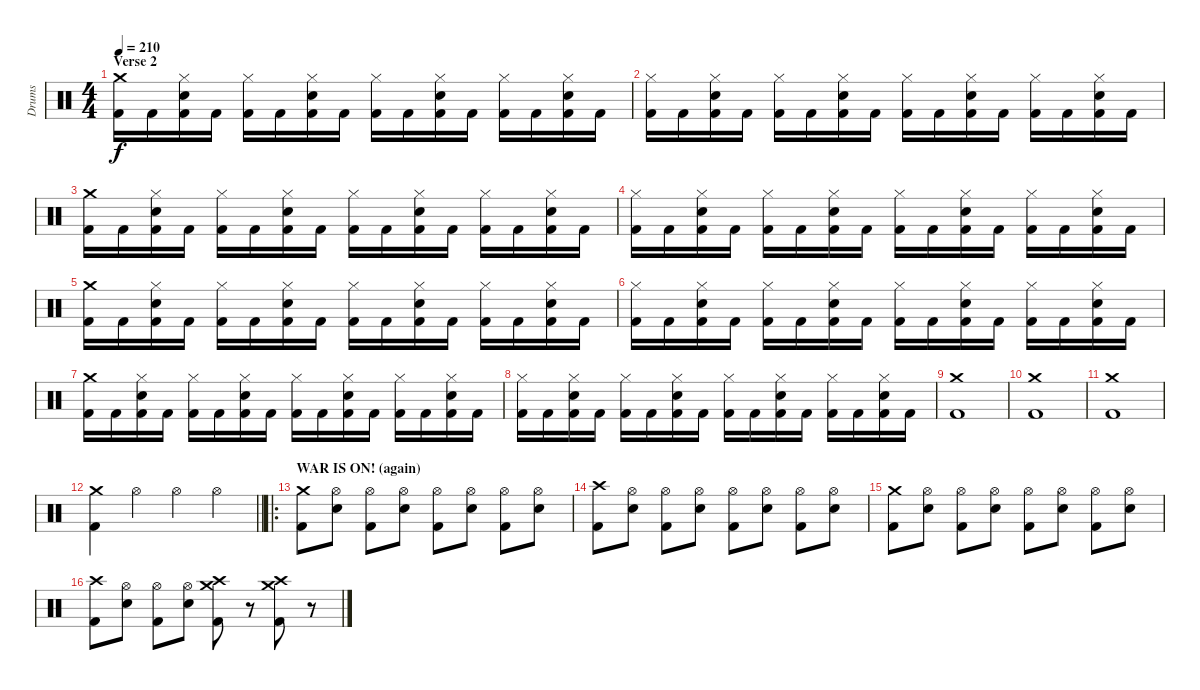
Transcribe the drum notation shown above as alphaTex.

\track ("Drums" "Drums") {instrument percussion}
\staff {score}
\articulation defaults
\ts (4 4)
\section ("" "Verse 2")
\tempo 210
\clef neutral
\ks c
("Crash medium (hit)" "Kick (hit) 2").16{dy f} "Kick (hit) 2".16 ("Hi-Hat (closed)" "Electric Snare (hit)" "Kick (hit) 2").16 "Kick (hit) 2".16 ("Hi-Hat (closed)" "Kick (hit) 2").16 "Kick (hit) 2".16 ("Hi-Hat (closed)" "Electric Snare (hit)" "Kick (hit) 2").16 "Kick (hit) 2".16 ("Hi-Hat (closed)" "Kick (hit) 2").16 "Kick (hit) 2".16 ("Hi-Hat (closed)" "Electric Snare (hit)" "Kick (hit) 2").16 "Kick (hit) 2".16 ("Hi-Hat (closed)" "Kick (hit) 2").16 "Kick (hit) 2".16 ("Hi-Hat (closed)" "Electric Snare (hit)" "Kick (hit) 2").16 "Kick (hit) 2".16 |
("Hi-Hat (closed)" "Kick (hit) 2").16 "Kick (hit) 2".16 ("Hi-Hat (closed)" "Electric Snare (hit)" "Kick (hit) 2").16 "Kick (hit) 2".16 ("Hi-Hat (closed)" "Kick (hit) 2").16 "Kick (hit) 2".16 ("Hi-Hat (closed)" "Electric Snare (hit)" "Kick (hit) 2").16 "Kick (hit) 2".16 ("Hi-Hat (closed)" "Kick (hit) 2").16 "Kick (hit) 2".16 ("Hi-Hat (closed)" "Electric Snare (hit)" "Kick (hit) 2").16 "Kick (hit) 2".16 ("Hi-Hat (closed)" "Kick (hit) 2").16 "Kick (hit) 2".16 ("Hi-Hat (closed)" "Electric Snare (hit)" "Kick (hit) 2").16 "Kick (hit) 2".16 |
("Crash medium (hit)" "Kick (hit) 2").16 "Kick (hit) 2".16 ("Hi-Hat (closed)" "Electric Snare (hit)" "Kick (hit) 2").16 "Kick (hit) 2".16 ("Hi-Hat (closed)" "Kick (hit) 2").16 "Kick (hit) 2".16 ("Hi-Hat (closed)" "Electric Snare (hit)" "Kick (hit) 2").16 "Kick (hit) 2".16 ("Hi-Hat (closed)" "Kick (hit) 2").16 "Kick (hit) 2".16 ("Hi-Hat (closed)" "Electric Snare (hit)" "Kick (hit) 2").16 "Kick (hit) 2".16 ("Hi-Hat (closed)" "Kick (hit) 2").16 "Kick (hit) 2".16 ("Hi-Hat (closed)" "Electric Snare (hit)" "Kick (hit) 2").16 "Kick (hit) 2".16 |
("Hi-Hat (closed)" "Kick (hit) 2").16 "Kick (hit) 2".16 ("Hi-Hat (closed)" "Electric Snare (hit)" "Kick (hit) 2").16 "Kick (hit) 2".16 ("Hi-Hat (closed)" "Kick (hit) 2").16 "Kick (hit) 2".16 ("Hi-Hat (closed)" "Electric Snare (hit)" "Kick (hit) 2").16 "Kick (hit) 2".16 ("Hi-Hat (closed)" "Kick (hit) 2").16 "Kick (hit) 2".16 ("Hi-Hat (closed)" "Electric Snare (hit)" "Kick (hit) 2").16 "Kick (hit) 2".16 ("Hi-Hat (closed)" "Kick (hit) 2").16 "Kick (hit) 2".16 ("Hi-Hat (closed)" "Electric Snare (hit)" "Kick (hit) 2").16 "Kick (hit) 2".16 |
("Crash medium (hit)" "Kick (hit) 2").16 "Kick (hit) 2".16 ("Hi-Hat (closed)" "Electric Snare (hit)" "Kick (hit) 2").16 "Kick (hit) 2".16 ("Hi-Hat (closed)" "Kick (hit) 2").16 "Kick (hit) 2".16 ("Hi-Hat (closed)" "Electric Snare (hit)" "Kick (hit) 2").16 "Kick (hit) 2".16 ("Hi-Hat (closed)" "Kick (hit) 2").16 "Kick (hit) 2".16 ("Hi-Hat (closed)" "Electric Snare (hit)" "Kick (hit) 2").16 "Kick (hit) 2".16 ("Hi-Hat (closed)" "Kick (hit) 2").16 "Kick (hit) 2".16 ("Hi-Hat (closed)" "Electric Snare (hit)" "Kick (hit) 2").16 "Kick (hit) 2".16 |
("Hi-Hat (closed)" "Kick (hit) 2").16 "Kick (hit) 2".16 ("Hi-Hat (closed)" "Electric Snare (hit)" "Kick (hit) 2").16 "Kick (hit) 2".16 ("Hi-Hat (closed)" "Kick (hit) 2").16 "Kick (hit) 2".16 ("Hi-Hat (closed)" "Electric Snare (hit)" "Kick (hit) 2").16 "Kick (hit) 2".16 ("Hi-Hat (closed)" "Kick (hit) 2").16 "Kick (hit) 2".16 ("Hi-Hat (closed)" "Electric Snare (hit)" "Kick (hit) 2").16 "Kick (hit) 2".16 ("Hi-Hat (closed)" "Kick (hit) 2").16 "Kick (hit) 2".16 ("Hi-Hat (closed)" "Electric Snare (hit)" "Kick (hit) 2").16 "Kick (hit) 2".16 |
("Crash medium (hit)" "Kick (hit) 2").16 "Kick (hit) 2".16 ("Hi-Hat (closed)" "Electric Snare (hit)" "Kick (hit) 2").16 "Kick (hit) 2".16 ("Hi-Hat (closed)" "Kick (hit) 2").16 "Kick (hit) 2".16 ("Hi-Hat (closed)" "Electric Snare (hit)" "Kick (hit) 2").16 "Kick (hit) 2".16 ("Hi-Hat (closed)" "Kick (hit) 2").16 "Kick (hit) 2".16 ("Hi-Hat (closed)" "Electric Snare (hit)" "Kick (hit) 2").16 "Kick (hit) 2".16 ("Hi-Hat (closed)" "Kick (hit) 2").16 "Kick (hit) 2".16 ("Hi-Hat (closed)" "Electric Snare (hit)" "Kick (hit) 2").16 "Kick (hit) 2".16 |
("Hi-Hat (closed)" "Kick (hit) 2").16 "Kick (hit) 2".16 ("Hi-Hat (closed)" "Electric Snare (hit)" "Kick (hit) 2").16 "Kick (hit) 2".16 ("Hi-Hat (closed)" "Kick (hit) 2").16 "Kick (hit) 2".16 ("Hi-Hat (closed)" "Electric Snare (hit)" "Kick (hit) 2").16 "Kick (hit) 2".16 ("Hi-Hat (closed)" "Kick (hit) 2").16 "Kick (hit) 2".16 ("Hi-Hat (closed)" "Electric Snare (hit)" "Kick (hit) 2").16 "Kick (hit) 2".16 ("Hi-Hat (closed)" "Kick (hit) 2").16 "Kick (hit) 2".16 ("Hi-Hat (closed)" "Electric Snare (hit)" "Kick (hit) 2").16 "Kick (hit) 2".16 |
("Crash medium (hit)" "Kick (hit) 2").1 |
("Crash medium (hit)" "Kick (hit) 2").1 |
("Crash medium (hit)" "Kick (hit) 2").1 |
\barLineRight lightlight
("Crash medium (hit)" "Kick (hit) 2").4 "Hi-Hat (open)".4 "Hi-Hat (open)".4 "Hi-Hat (open)".4 |
\ro
\section ("" "WAR IS ON! (again)")
("Crash medium (hit)" "Kick (hit) 2").8 ("Hi-Hat (open)" "Electric Snare (hit)").8 ("Hi-Hat (open)" "Kick (hit) 2").8 ("Hi-Hat (open)" "Electric Snare (hit)").8 ("Hi-Hat (open)" "Kick (hit) 2").8 ("Hi-Hat (open)" "Electric Snare (hit)").8 ("Hi-Hat (open)" "Kick (hit) 2").8 ("Hi-Hat (open)" "Electric Snare (hit)").8 |
("Crash high (hit)" "Kick (hit) 2").8 ("Hi-Hat (open)" "Electric Snare (hit)").8 ("Hi-Hat (open)" "Kick (hit) 2").8 ("Hi-Hat (open)" "Electric Snare (hit)").8 ("Hi-Hat (open)" "Kick (hit) 2").8 ("Hi-Hat (open)" "Electric Snare (hit)").8 ("Hi-Hat (open)" "Kick (hit) 2").8 ("Hi-Hat (open)" "Electric Snare (hit)").8 |
("Crash medium (hit)" "Kick (hit) 2").8 ("Hi-Hat (open)" "Electric Snare (hit)").8 ("Hi-Hat (open)" "Kick (hit) 2").8 ("Hi-Hat (open)" "Electric Snare (hit)").8 ("Hi-Hat (open)" "Kick (hit) 2").8 ("Hi-Hat (open)" "Electric Snare (hit)").8 ("Hi-Hat (open)" "Kick (hit) 2").8 ("Hi-Hat (open)" "Electric Snare (hit)").8 |
("Crash high (hit)" "Kick (hit) 2").8 ("Hi-Hat (open)" "Electric Snare (hit)").8 ("Hi-Hat (open)" "Kick (hit) 2").8 ("Hi-Hat (open)" "Electric Snare (hit)").8 ("Crash medium (hit)" "Crash high (hit)" "Kick (hit) 2").8 r.8 ("Crash medium (hit)" "Crash high (hit)" "Kick (hit) 2").8 r.8
